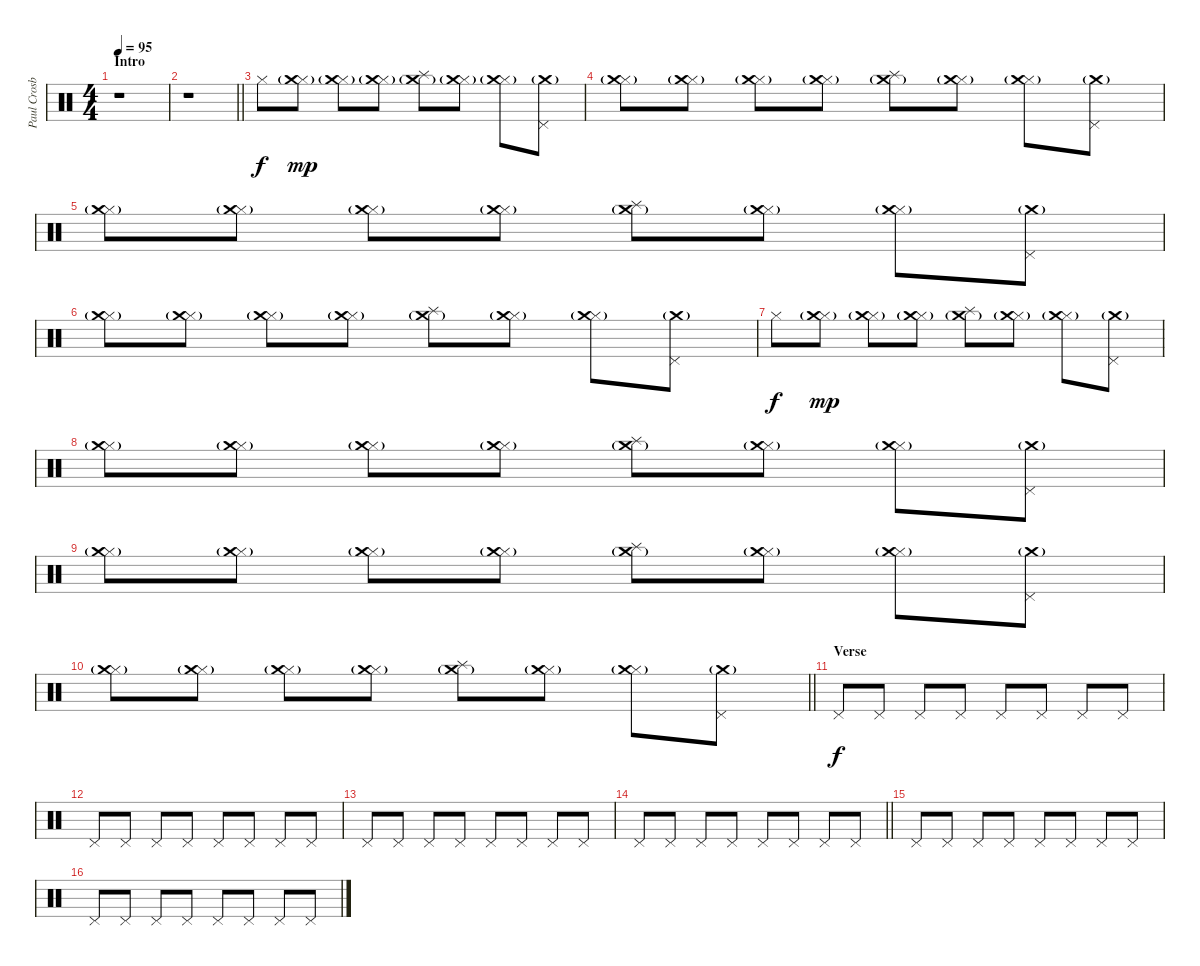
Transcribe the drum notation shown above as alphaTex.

\track ("Paul Crosby (Drums)" "Paul Crosb") {instrument percussion}
\staff {score}
\articulation defaults
\ts (4 4)
\section ("" "Intro")
\tempo 95
\clef neutral
\ks c
r.1{dy f} |
\barLineRight lightlight
r.1 |
"Hi-Hat (closed)".8 ("Hi-Hat (closed)" "Crash medium (hit)"{g}).8{dy mp} ("Hi-Hat (closed)" "Crash medium (hit)"{g}).8 ("Hi-Hat (closed)" "Crash medium (hit)"{g}).8 ("Splash (hit)" "Crash medium (hit)"{g}).8 ("Hi-Hat (closed)" "Crash medium (hit)"{g}).8 ("Hi-Hat (closed)" "Crash medium (hit)"{g}).8 ("Pedal Hi-Hat (hit)" "Crash medium (hit)"{g}).8 |
("Hi-Hat (closed)" "Crash medium (hit)"{g}).8 ("Hi-Hat (closed)" "Crash medium (hit)"{g}).8 ("Hi-Hat (closed)" "Crash medium (hit)"{g}).8 ("Hi-Hat (closed)" "Crash medium (hit)"{g}).8 ("Splash (hit)" "Crash medium (hit)"{g}).8 ("Hi-Hat (closed)" "Crash medium (hit)"{g}).8 ("Hi-Hat (closed)" "Crash medium (hit)"{g}).8 ("Pedal Hi-Hat (hit)" "Crash medium (hit)"{g}).8 |
("Hi-Hat (closed)" "Crash medium (hit)"{g}).8 ("Hi-Hat (closed)" "Crash medium (hit)"{g}).8 ("Hi-Hat (closed)" "Crash medium (hit)"{g}).8 ("Hi-Hat (closed)" "Crash medium (hit)"{g}).8 ("Splash (hit)" "Crash medium (hit)"{g}).8 ("Hi-Hat (closed)" "Crash medium (hit)"{g}).8 ("Hi-Hat (closed)" "Crash medium (hit)"{g}).8 ("Pedal Hi-Hat (hit)" "Crash medium (hit)"{g}).8 |
("Hi-Hat (closed)" "Crash medium (hit)"{g}).8 ("Hi-Hat (closed)" "Crash medium (hit)"{g}).8 ("Hi-Hat (closed)" "Crash medium (hit)"{g}).8 ("Hi-Hat (closed)" "Crash medium (hit)"{g}).8 ("Splash (hit)" "Crash medium (hit)"{g}).8 ("Hi-Hat (closed)" "Crash medium (hit)"{g}).8 ("Hi-Hat (closed)" "Crash medium (hit)"{g}).8 ("Pedal Hi-Hat (hit)" "Crash medium (hit)"{g}).8 |
"Hi-Hat (closed)".8{dy f} ("Hi-Hat (closed)" "Crash medium (hit)"{g}).8{dy mp} ("Hi-Hat (closed)" "Crash medium (hit)"{g}).8 ("Hi-Hat (closed)" "Crash medium (hit)"{g}).8 ("Splash (hit)" "Crash medium (hit)"{g}).8 ("Hi-Hat (closed)" "Crash medium (hit)"{g}).8 ("Hi-Hat (closed)" "Crash medium (hit)"{g}).8 ("Pedal Hi-Hat (hit)" "Crash medium (hit)"{g}).8 |
("Hi-Hat (closed)" "Crash medium (hit)"{g}).8 ("Hi-Hat (closed)" "Crash medium (hit)"{g}).8 ("Hi-Hat (closed)" "Crash medium (hit)"{g}).8 ("Hi-Hat (closed)" "Crash medium (hit)"{g}).8 ("Splash (hit)" "Crash medium (hit)"{g}).8 ("Hi-Hat (closed)" "Crash medium (hit)"{g}).8 ("Hi-Hat (closed)" "Crash medium (hit)"{g}).8 ("Pedal Hi-Hat (hit)" "Crash medium (hit)"{g}).8 |
("Hi-Hat (closed)" "Crash medium (hit)"{g}).8 ("Hi-Hat (closed)" "Crash medium (hit)"{g}).8 ("Hi-Hat (closed)" "Crash medium (hit)"{g}).8 ("Hi-Hat (closed)" "Crash medium (hit)"{g}).8 ("Splash (hit)" "Crash medium (hit)"{g}).8 ("Hi-Hat (closed)" "Crash medium (hit)"{g}).8 ("Hi-Hat (closed)" "Crash medium (hit)"{g}).8 ("Pedal Hi-Hat (hit)" "Crash medium (hit)"{g}).8 |
\barLineRight lightlight
("Hi-Hat (closed)" "Crash medium (hit)"{g}).8 ("Hi-Hat (closed)" "Crash medium (hit)"{g}).8 ("Hi-Hat (closed)" "Crash medium (hit)"{g}).8 ("Hi-Hat (closed)" "Crash medium (hit)"{g}).8 ("Splash (hit)" "Crash medium (hit)"{g}).8 ("Hi-Hat (closed)" "Crash medium (hit)"{g}).8 ("Hi-Hat (closed)" "Crash medium (hit)"{g}).8 ("Pedal Hi-Hat (hit)" "Crash medium (hit)"{g}).8 |
\section ("" "Verse")
"Pedal Hi-Hat (hit)".8{dy f} "Pedal Hi-Hat (hit)".8 "Pedal Hi-Hat (hit)".8 "Pedal Hi-Hat (hit)".8 "Pedal Hi-Hat (hit)".8 "Pedal Hi-Hat (hit)".8 "Pedal Hi-Hat (hit)".8 "Pedal Hi-Hat (hit)".8 |
"Pedal Hi-Hat (hit)".8 "Pedal Hi-Hat (hit)".8 "Pedal Hi-Hat (hit)".8 "Pedal Hi-Hat (hit)".8 "Pedal Hi-Hat (hit)".8 "Pedal Hi-Hat (hit)".8 "Pedal Hi-Hat (hit)".8 "Pedal Hi-Hat (hit)".8 |
"Pedal Hi-Hat (hit)".8 "Pedal Hi-Hat (hit)".8 "Pedal Hi-Hat (hit)".8 "Pedal Hi-Hat (hit)".8 "Pedal Hi-Hat (hit)".8 "Pedal Hi-Hat (hit)".8 "Pedal Hi-Hat (hit)".8 "Pedal Hi-Hat (hit)".8 |
\barLineRight lightlight "Pedal Hi-Hat (hit)".8 "Pedal Hi-Hat (hit)".8 "Pedal Hi-Hat (hit)".8 "Pedal Hi-Hat (hit)".8 "Pedal Hi-Hat (hit)".8 "Pedal Hi-Hat (hit)".8 "Pedal Hi-Hat (hit)".8 "Pedal Hi-Hat (hit)".8
|
"Pedal Hi-Hat (hit)".8 "Pedal Hi-Hat (hit)".8 "Pedal Hi-Hat (hit)".8 "Pedal Hi-Hat (hit)".8 "Pedal Hi-Hat (hit)".8 "Pedal Hi-Hat (hit)".8 "Pedal Hi-Hat (hit)".8 "Pedal Hi-Hat (hit)".8 |
"Pedal Hi-Hat (hit)".8 "Pedal Hi-Hat (hit)".8 "Pedal Hi-Hat (hit)".8 "Pedal Hi-Hat (hit)".8 "Pedal Hi-Hat (hit)".8 "Pedal Hi-Hat (hit)".8 "Pedal Hi-Hat (hit)".8 "Pedal Hi-Hat (hit)".8
